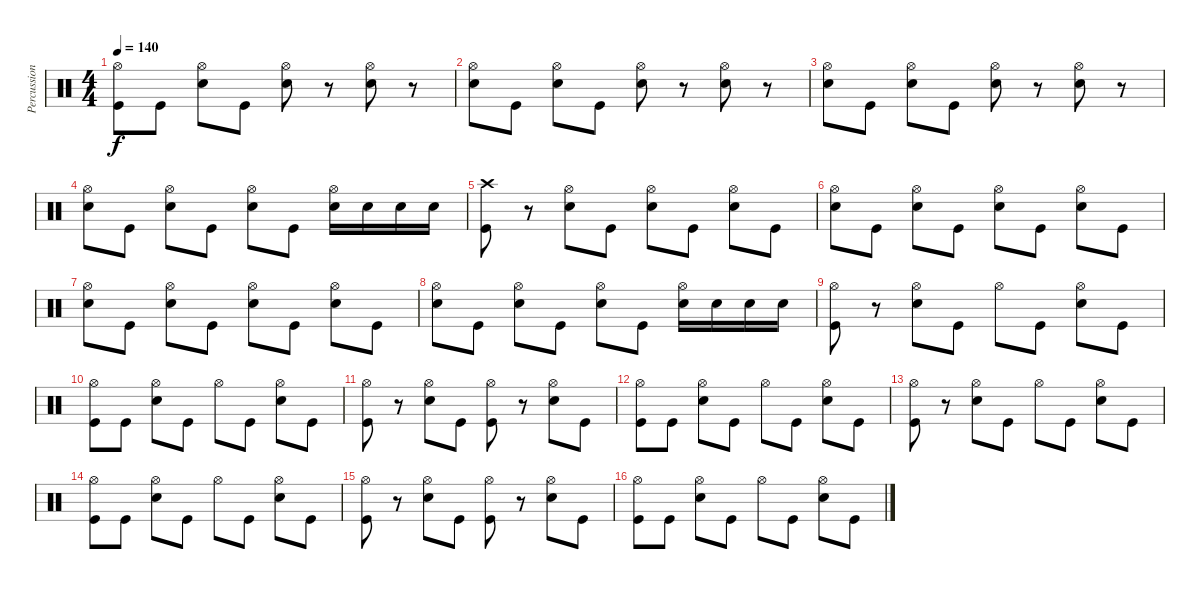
\track ("Percussion" "Percussion") {instrument percussion}
\staff {score}
\articulation defaults
\ts (4 4)
\tempo 140
\clef neutral
\ks c
("Hi-Hat (open)" "Kick (hit)").8{dy f} "Kick (hit)".8 ("Hi-Hat (open)" "Snare (hit) 2").8 "Kick (hit)".8 ("Hi-Hat (open)" "Snare (hit) 2").8 r.8 ("Hi-Hat (open)" "Snare (hit) 2").8 r.8 |
("Hi-Hat (open)" "Snare (hit) 2").8 "Kick (hit)".8 ("Hi-Hat (open)" "Snare (hit) 2").8 "Kick (hit)".8 ("Hi-Hat (open)" "Snare (hit) 2").8 r.8 ("Hi-Hat (open)" "Snare (hit) 2").8 r.8 |
("Hi-Hat (open)" "Snare (hit) 2").8 "Kick (hit)".8 ("Hi-Hat (open)" "Snare (hit) 2").8 "Kick (hit)".8 ("Hi-Hat (open)" "Snare (hit) 2").8 r.8 ("Hi-Hat (open)" "Snare (hit) 2").8 r.8 |
("Hi-Hat (open)" "Snare (hit) 2").8 "Kick (hit)".8 ("Hi-Hat (open)" "Snare (hit) 2").8 "Kick (hit)".8 ("Hi-Hat (open)" "Snare (hit) 2").8 "Kick (hit)".8 ("Hi-Hat (open)" "Snare (hit) 2").16 "Snare (hit) 2".16 "Snare (hit) 2".16 "Snare (hit) 2".16 |
("Crash high (hit)" "Kick (hit)").8 r.8 ("Hi-Hat (open)" "Snare (hit) 2").8 "Kick (hit)".8 ("Hi-Hat (open)" "Snare (hit) 2").8 "Kick (hit)".8 ("Hi-Hat (open)" "Snare (hit) 2").8 "Kick (hit)".8 |
("Hi-Hat (open)" "Snare (hit) 2").8 "Kick (hit)".8 ("Hi-Hat (open)" "Snare (hit) 2").8 "Kick (hit)".8 ("Hi-Hat (open)" "Snare (hit) 2").8 "Kick (hit)".8 ("Hi-Hat (open)" "Snare (hit) 2").8 "Kick (hit)".8 |
("Hi-Hat (open)" "Snare (hit) 2").8 "Kick (hit)".8 ("Hi-Hat (open)" "Snare (hit) 2").8 "Kick (hit)".8 ("Hi-Hat (open)" "Snare (hit) 2").8 "Kick (hit)".8 ("Hi-Hat (open)" "Snare (hit) 2").8 "Kick (hit)".8 |
("Hi-Hat (open)" "Snare (hit) 2").8 "Kick (hit)".8 ("Hi-Hat (open)" "Snare (hit) 2").8 "Kick (hit)".8 ("Hi-Hat (open)" "Snare (hit) 2").8 "Kick (hit)".8 ("Hi-Hat (open)" "Snare (hit) 2").16 "Snare (hit) 2".16 "Snare (hit) 2".16 "Snare (hit) 2".16 |
("Hi-Hat (open)" "Kick (hit)").8 r.8 ("Hi-Hat (open)" "Snare (hit) 2").8 "Kick (hit)".8 "Hi-Hat (open)".8 "Kick (hit)".8 ("Hi-Hat (open)" "Snare (hit) 2").8 "Kick (hit)".8 |
("Hi-Hat (open)" "Kick (hit)").8 "Kick (hit)".8 ("Hi-Hat (open)" "Snare (hit) 2").8 "Kick (hit)".8 "Hi-Hat (open)".8 "Kick (hit)".8 ("Hi-Hat (open)" "Snare (hit) 2").8 "Kick (hit)".8 |
("Hi-Hat (open)" "Kick (hit)").8 r.8 ("Hi-Hat (open)" "Snare (hit) 2").8 "Kick (hit)".8 ("Hi-Hat (open)" "Kick (hit)").8 r.8 ("Hi-Hat (open)" "Snare (hit) 2").8 "Kick (hit)".8 |
("Hi-Hat (open)" "Kick (hit)").8 "Kick (hit)".8 ("Hi-Hat (open)" "Snare (hit) 2").8 "Kick (hit)".8 "Hi-Hat (open)".8 "Kick (hit)".8 ("Hi-Hat (open)" "Snare (hit) 2").8 "Kick (hit)".8 |
("Hi-Hat (open)" "Kick (hit)").8 r.8 ("Hi-Hat (open)" "Snare (hit) 2").8 "Kick (hit)".8 "Hi-Hat (open)".8 "Kick (hit)".8 ("Hi-Hat (open)" "Snare (hit) 2").8 "Kick (hit)".8 |
("Hi-Hat (open)" "Kick (hit)").8 "Kick (hit)".8 ("Hi-Hat (open)" "Snare (hit) 2").8 "Kick (hit)".8 "Hi-Hat (open)".8 "Kick (hit)".8 ("Hi-Hat (open)" "Snare (hit) 2").8 "Kick (hit)".8 |
("Hi-Hat (open)" "Kick (hit)").8 r.8 ("Hi-Hat (open)" "Snare (hit) 2").8 "Kick (hit)".8 ("Hi-Hat (open)" "Kick (hit)").8 r.8 ("Hi-Hat (open)" "Snare (hit) 2").8 "Kick (hit)".8 |
("Hi-Hat (open)" "Kick (hit)").8 "Kick (hit)".8 ("Hi-Hat (open)" "Snare (hit) 2").8 "Kick (hit)".8 "Hi-Hat (open)".8 "Kick (hit)".8 ("Hi-Hat (open)" "Snare (hit) 2").8 "Kick (hit)".8
